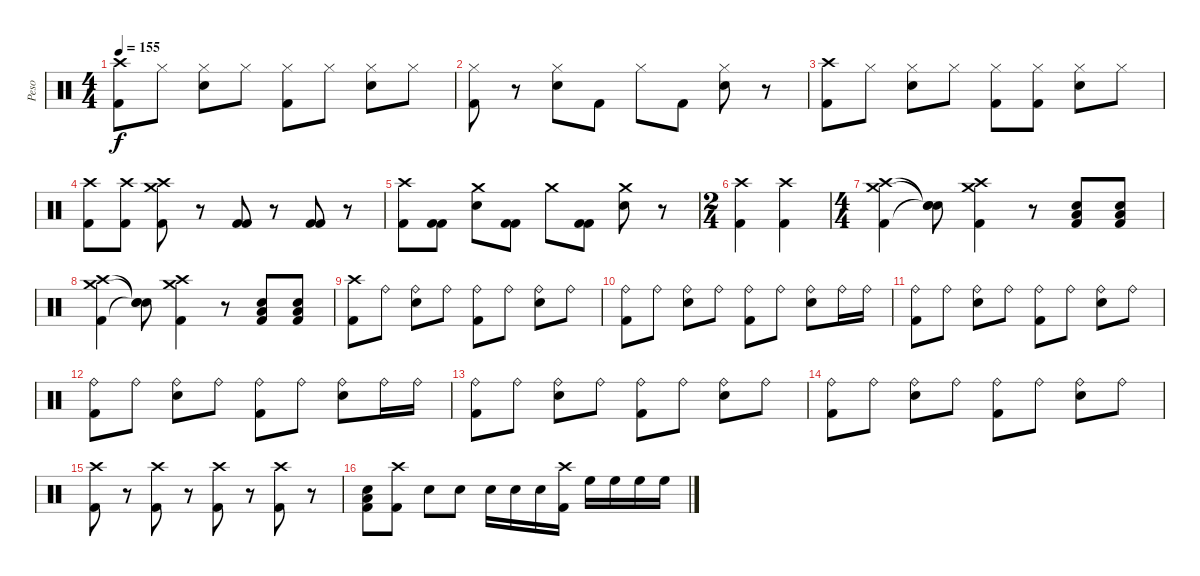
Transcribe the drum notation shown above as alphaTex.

\track ("Peso" "Peso") {instrument percussion}
\staff {score}
\articulation defaults
\ts (4 4)
\tempo 155
\clef neutral
\ks c
("Crash high (hit)" "Kick (hit) 2").8{dy f} "Hi-Hat (closed)".8 ("Hi-Hat (closed)" "Snare (hit) 2").8 "Hi-Hat (closed)".8 ("Hi-Hat (closed)" "Kick (hit) 2").8 "Hi-Hat (closed)".8 ("Hi-Hat (closed)" "Snare (hit) 2").8 "Hi-Hat (closed)".8 |
("Hi-Hat (closed)" "Kick (hit) 2").8 r.8 ("Hi-Hat (closed)" "Snare (hit) 2").8 "Kick (hit) 2".8 "Hi-Hat (closed)".8 "Kick (hit) 2".8 ("Hi-Hat (closed)" "Snare (hit) 2").8 r.8 |
("Crash high (hit)" "Kick (hit) 2").8 "Hi-Hat (closed)".8 ("Hi-Hat (closed)" "Snare (hit) 2").8 "Hi-Hat (closed)".8 ("Hi-Hat (closed)" "Kick (hit) 2").8 ("Hi-Hat (closed)" "Kick (hit) 2").8 ("Hi-Hat (closed)" "Snare (hit) 2").8 "Hi-Hat (closed)".8 |
("Crash high (hit)" "Kick (hit) 2").8 ("Crash high (hit)" "Kick (hit) 2").8 ("Crash high (hit)" "Crash medium (hit)" "Kick (hit) 2").8 r.8 ("Kick (hit) 2" "Kick (hit) 2").8 r.8 ("Kick (hit) 2" "Kick (hit) 2").8 r.8 |
("Crash high (hit)" "Kick (hit) 2").8 ("Kick (hit) 2" "Kick (hit) 2").8 ("Crash medium (hit)" "Snare (hit) 2").8 ("Kick (hit) 2" "Kick (hit) 2").8 "Crash medium (hit)".8 ("Kick (hit) 2" "Kick (hit) 2").8 ("Crash medium (hit)" "Snare (hit) 2").8 r.8 |
\ts (2 4)
("Crash high (hit)" "Kick (hit) 2").4 ("Crash high (hit)" "Kick (hit) 2").4 |
\ts (4 4)
("Crash high (hit)" "Crash medium (hit)" "Kick (hit) 2").4 ("Snare (hit)"{t} "Snare (hit)"{t} "Snare (hit)"{t}).8 ("Crash high (hit)" "Crash medium (hit)" "Kick (hit) 2").4 r.8 ("Low Floor Tom (hit)" "Snare (hit) 2" "Kick (hit) 2").8 ("Low Floor Tom (hit)" "Snare (hit) 2" "Kick (hit) 2").8 |
("Crash high (hit)" "Crash medium (hit)" "Kick (hit) 2").4 ("Snare (hit)"{t} "Snare (hit)"{t} "Snare (hit)"{t}).8 ("Crash high (hit)" "Crash medium (hit)" "Kick (hit) 2").4 r.8 ("Low Floor Tom (hit)" "Snare (hit) 2" "Kick (hit) 2").8 ("Low Floor Tom (hit)" "Snare (hit) 2" "Kick (hit) 2").8 |
("Crash high (hit)" "Kick (hit) 2").8 "Ride (bell)".8 ("Ride (bell)" "Snare (hit) 2").8 "Ride (bell)".8 ("Ride (bell)" "Kick (hit) 2").8 "Ride (bell)".8 ("Ride (bell)" "Snare (hit) 2").8 "Ride (bell)".8 |
("Ride (bell)" "Kick (hit) 2").8 "Ride (bell)".8 ("Ride (bell)" "Snare (hit) 2").8 "Ride (bell)".8 ("Ride (bell)" "Kick (hit) 2").8 "Ride (bell)".8 ("Ride (bell)" "Snare (hit) 2").8 "Ride (bell)".16 "Ride (bell)".16 |
("Ride (bell)" "Kick (hit) 2").8 "Ride (bell)".8 ("Ride (bell)" "Snare (hit) 2").8 "Ride (bell)".8 ("Ride (bell)" "Kick (hit) 2").8 "Ride (bell)".8 ("Ride (bell)" "Snare (hit) 2").8 "Ride (bell)".8 |
("Ride (bell)" "Kick (hit) 2").8 "Ride (bell)".8 ("Ride (bell)" "Snare (hit) 2").8 "Ride (bell)".8 ("Ride (bell)" "Kick (hit) 2").8 "Ride (bell)".8 ("Ride (bell)" "Snare (hit) 2").8 "Ride (bell)".16 "Ride (bell)".16 |
("Ride (bell)" "Kick (hit) 2").8 "Ride (bell)".8 ("Ride (bell)" "Snare (hit) 2").8 "Ride (bell)".8 ("Ride (bell)" "Kick (hit) 2").8 "Ride (bell)".8 ("Ride (bell)" "Snare (hit) 2").8 "Ride (bell)".8 |
("Ride (bell)" "Kick (hit) 2").8 "Ride (bell)".8 ("Ride (bell)" "Snare (hit) 2").8 "Ride (bell)".8 ("Ride (bell)" "Kick (hit) 2").8 "Ride (bell)".8 ("Ride (bell)" "Snare (hit) 2").8 "Ride (bell)".8 |
("Crash high (hit)" "Kick (hit) 2").8 r.8 ("Crash high (hit)" "Kick (hit) 2").8 r.8 ("Crash high (hit)" "Kick (hit) 2").8 r.8 ("Crash high (hit)" "Kick (hit) 2").8 r.8 |
("Low Floor Tom (hit)" "Snare (hit) 2" "Kick (hit) 2").8 ("Crash high (hit)" "Kick (hit) 2").8 "Snare (hit) 2".8 "Snare (hit) 2".8 "Snare (hit) 2".16 "Snare (hit) 2".16 "Snare (hit) 2".16 ("Crash high (hit)" "Kick (hit) 2").16 "High Floor Tom (hit)".16 "High Floor Tom (hit)".16 "High Floor Tom (hit)".16 "High Floor Tom (hit)".16
